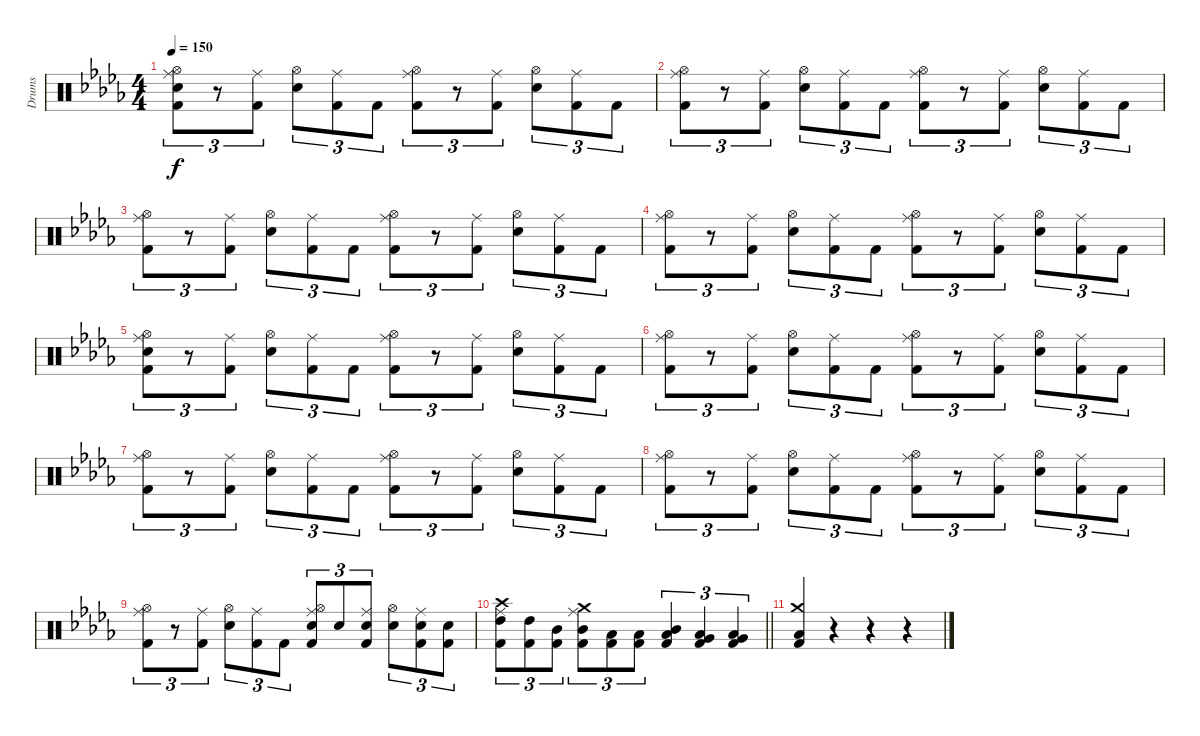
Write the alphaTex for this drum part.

\track ("Drums" "Drums") {instrument percussion}
\staff {score}
\articulation defaults
\ts (4 4)
\tempo 150
\clef neutral
\ks bbminor
("Snare (hit)" "Hi-Hat (open)" "Ride (middle)" "Kick (hit) 2").8{tu (3 2) dy f} r.8{tu (3 2)} ("Ride (middle)" "Kick (hit) 2").8{tu (3 2)} ("Hi-Hat (open)" "Snare (hit) 2").8{tu (3 2)} ("Ride (middle)" "Kick (hit) 2").8{tu (3 2)} "Kick (hit) 2".8{tu (3 2)} ("Hi-Hat (open)" "Ride (middle)" "Kick (hit) 2").8{tu (3 2)} r.8{tu (3 2)} ("Ride (middle)" "Kick (hit) 2").8{tu (3 2)} ("Hi-Hat (open)" "Snare (hit) 2").8{tu (3 2)} ("Ride (middle)" "Kick (hit) 2").8{tu (3 2)} "Kick (hit) 2".8{tu (3 2)} |
("Hi-Hat (open)" "Ride (middle)" "Kick (hit) 2").8{tu (3 2)} r.8{tu (3 2)} ("Ride (middle)" "Kick (hit) 2").8{tu (3 2)} ("Hi-Hat (open)" "Snare (hit) 2").8{tu (3 2)} ("Ride (middle)" "Kick (hit) 2").8{tu (3 2)} "Kick (hit) 2".8{tu (3 2)} ("Hi-Hat (open)" "Ride (middle)" "Kick (hit) 2").8{tu (3 2)} r.8{tu (3 2)} ("Ride (middle)" "Kick (hit) 2").8{tu (3 2)} ("Hi-Hat (open)" "Snare (hit) 2").8{tu (3 2)} ("Ride (middle)" "Kick (hit) 2").8{tu (3 2)} "Kick (hit) 2".8{tu (3 2)} |
("Hi-Hat (open)" "Ride (middle)" "Kick (hit) 2").8{tu (3 2)} r.8{tu (3 2)} ("Ride (middle)" "Kick (hit) 2").8{tu (3 2)} ("Hi-Hat (open)" "Snare (hit) 2").8{tu (3 2)} ("Ride (middle)" "Kick (hit) 2").8{tu (3 2)} "Kick (hit) 2".8{tu (3 2)} ("Hi-Hat (open)" "Ride (middle)" "Kick (hit) 2").8{tu (3 2)} r.8{tu (3 2)} ("Ride (middle)" "Kick (hit) 2").8{tu (3 2)} ("Hi-Hat (open)" "Snare (hit) 2").8{tu (3 2)} ("Ride (middle)" "Kick (hit) 2").8{tu (3 2)} "Kick (hit) 2".8{tu (3 2)} |
("Hi-Hat (open)" "Ride (middle)" "Kick (hit) 2").8{tu (3 2)} r.8{tu (3 2)} ("Ride (middle)" "Kick (hit) 2").8{tu (3 2)} ("Hi-Hat (open)" "Snare (hit) 2").8{tu (3 2)} ("Ride (middle)" "Kick (hit) 2").8{tu (3 2)} "Kick (hit) 2".8{tu (3 2)} ("Hi-Hat (open)" "Ride (middle)" "Kick (hit) 2").8{tu (3 2)} r.8{tu (3 2)} ("Ride (middle)" "Kick (hit) 2").8{tu (3 2)} ("Hi-Hat (open)" "Snare (hit) 2").8{tu (3 2)} ("Ride (middle)" "Kick (hit) 2").8{tu (3 2)} "Kick (hit) 2".8{tu (3 2)} |
("Snare (hit)" "Hi-Hat (open)" "Ride (middle)" "Kick (hit) 2").8{tu (3 2)} r.8{tu (3 2)} ("Ride (middle)" "Kick (hit) 2").8{tu (3 2)} ("Hi-Hat (open)" "Snare (hit) 2").8{tu (3 2)} ("Ride (middle)" "Kick (hit) 2").8{tu (3 2)} "Kick (hit) 2".8{tu (3 2)} ("Hi-Hat (open)" "Ride (middle)" "Kick (hit) 2").8{tu (3 2)} r.8{tu (3 2)} ("Ride (middle)" "Kick (hit) 2").8{tu (3 2)} ("Hi-Hat (open)" "Snare (hit) 2").8{tu (3 2)} ("Ride (middle)" "Kick (hit) 2").8{tu (3 2)} "Kick (hit) 2".8{tu (3 2)} |
("Hi-Hat (open)" "Ride (middle)" "Kick (hit) 2").8{tu (3 2)} r.8{tu (3 2)} ("Ride (middle)" "Kick (hit) 2").8{tu (3 2)} ("Hi-Hat (open)" "Snare (hit) 2").8{tu (3 2)} ("Ride (middle)" "Kick (hit) 2").8{tu (3 2)} "Kick (hit) 2".8{tu (3 2)} ("Hi-Hat (open)" "Ride (middle)" "Kick (hit) 2").8{tu (3 2)} r.8{tu (3 2)} ("Ride (middle)" "Kick (hit) 2").8{tu (3 2)} ("Hi-Hat (open)" "Snare (hit) 2").8{tu (3 2)} ("Ride (middle)" "Kick (hit) 2").8{tu (3 2)} "Kick (hit) 2".8{tu (3 2)} |
("Hi-Hat (open)" "Ride (middle)" "Kick (hit) 2").8{tu (3 2)} r.8{tu (3 2)} ("Ride (middle)" "Kick (hit) 2").8{tu (3 2)} ("Hi-Hat (open)" "Snare (hit) 2").8{tu (3 2)} ("Ride (middle)" "Kick (hit) 2").8{tu (3 2)} "Kick (hit) 2".8{tu (3 2)} ("Hi-Hat (open)" "Ride (middle)" "Kick (hit) 2").8{tu (3 2)} r.8{tu (3 2)} ("Ride (middle)" "Kick (hit) 2").8{tu (3 2)} ("Hi-Hat (open)" "Snare (hit) 2").8{tu (3 2)} ("Ride (middle)" "Kick (hit) 2").8{tu (3 2)} "Kick (hit) 2".8{tu (3 2)} |
("Hi-Hat (open)" "Ride (middle)" "Kick (hit) 2").8{tu (3 2)} r.8{tu (3 2)} ("Ride (middle)" "Kick (hit) 2").8{tu (3 2)} ("Hi-Hat (open)" "Snare (hit) 2").8{tu (3 2)} ("Ride (middle)" "Kick (hit) 2").8{tu (3 2)} "Kick (hit) 2".8{tu (3 2)} ("Hi-Hat (open)" "Ride (middle)" "Kick (hit) 2").8{tu (3 2)} r.8{tu (3 2)} ("Ride (middle)" "Kick (hit) 2").8{tu (3 2)} ("Hi-Hat (open)" "Snare (hit) 2").8{tu (3 2)} ("Ride (middle)" "Kick (hit) 2").8{tu (3 2)} "Kick (hit) 2".8{tu (3 2)} |
("Hi-Hat (open)" "Ride (middle)" "Kick (hit) 2").8{tu (3 2)} r.8{tu (3 2)} ("Ride (middle)" "Kick (hit) 2").8{tu (3 2)} ("Hi-Hat (open)" "Snare (hit) 2").8{tu (3 2)} ("Ride (middle)" "Kick (hit) 2").8{tu (3 2)} "Kick (hit) 2".8{tu (3 2)} ("Hi-Hat (open)" "Ride (middle)" "Snare (hit) 2" "Kick (hit) 2").8{tu (3 2)} "Snare (hit) 2".8{tu (3 2)} ("Ride (middle)" "Snare (hit) 2" "Kick (hit) 2").8{tu (3 2)} ("Hi-Hat (open)" "Snare (hit) 2").8{tu (3 2)} ("Ride (middle)" "Snare (hit) 2" "Kick (hit) 2").8{tu (3 2)} ("Snare (hit) 2" "Kick (hit) 2").8{tu (3 2)} |
\barLineRight lightlight
("Ride (middle)" "Crash high (hit)" "High Tom (hit)" "Kick (hit) 2").8{tu (3 2)} ("High Tom (hit)" "Kick (hit) 2").8{tu (3 2)} ("Mid Tom (hit)" "Kick (hit) 2").8{tu (3 2)} ("Ride (middle)" "Crash medium (hit)" "Mid Tom (hit)" "Kick (hit) 2").8{tu (3 2)} ("Low Tom (hit)" "Kick (hit) 2").8{tu (3 2)} ("Low Tom (hit)" "Kick (hit) 2").8{tu (3 2)} ("Mid Tom (hit)" "Low Tom (hit)" "Kick (hit) 2").4{tu (3 2)} ("Low Tom (hit)" "Very Low Tom (hit)" "Kick (hit) 2").4{tu (3 2)} ("Very Low Tom (hit)" "Low Floor Tom (hit)" "Kick (hit) 2").4{tu (3 2)} |
("Crash medium (hit)" "Low Floor Tom (hit)" "Kick (hit) 2").4 r.4 r.4 r.4
